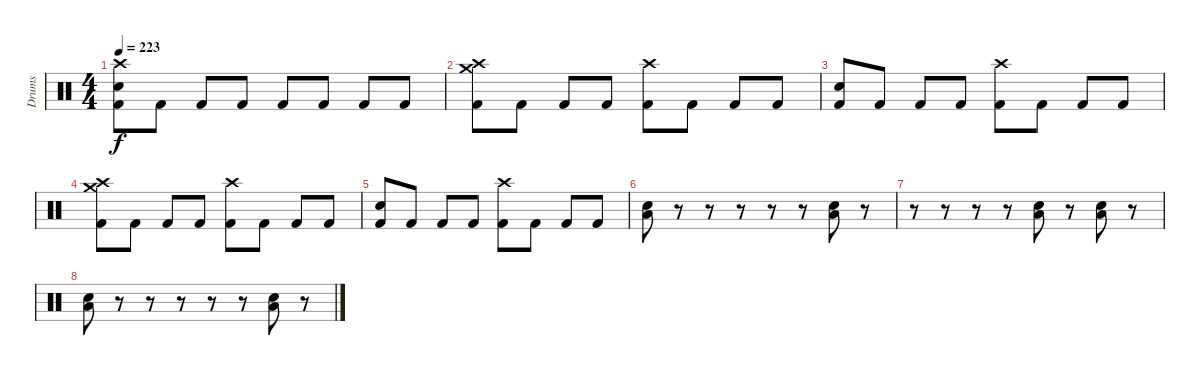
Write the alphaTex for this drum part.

\track ("Drums" "Drums") {instrument percussion bank 177}
\staff {score}
\articulation defaults
\ts (4 4)
\tempo 223
\clef neutral
\ks c
("Crash high (hit)" "Electric Snare (hit)" "Kick (hit) 2").8{dy f} "Kick (hit) 2".8 "Kick (hit) 2".8 "Kick (hit) 2".8 "Kick (hit) 2".8 "Kick (hit) 2".8 "Kick (hit) 2".8 "Kick (hit) 2".8 |
("Crash high (hit)" "Crash medium (hit)" "Kick (hit) 2").8 "Kick (hit) 2".8 "Kick (hit) 2".8 "Kick (hit) 2".8 ("Crash high (hit)" "Kick (hit) 2").8 "Kick (hit) 2".8 "Kick (hit) 2".8 "Kick (hit) 2".8 |
("Electric Snare (hit)" "Kick (hit) 2").8 "Kick (hit) 2".8 "Kick (hit) 2".8 "Kick (hit) 2".8 ("Crash high (hit)" "Kick (hit) 2").8 "Kick (hit) 2".8 "Kick (hit) 2".8 "Kick (hit) 2".8 |
("Crash high (hit)" "Crash medium (hit)" "Kick (hit) 2").8 "Kick (hit) 2".8 "Kick (hit) 2".8 "Kick (hit) 2".8 ("Crash high (hit)" "Kick (hit) 2").8 "Kick (hit) 2".8 "Kick (hit) 2".8 "Kick (hit) 2".8 |
("Electric Snare (hit)" "Kick (hit) 2").8 "Kick (hit) 2".8 "Kick (hit) 2".8 "Kick (hit) 2".8 ("Crash high (hit)" "Kick (hit) 2").8 "Kick (hit) 2".8 "Kick (hit) 2".8 "Kick (hit) 2".8 |
("Electric Snare (hit)" "Low Tom (hit)").8 r.8 r.8 r.8 r.8 r.8 ("Electric Snare (hit)" "Low Tom (hit)").8 r.8 |
r.8 r.8 r.8 r.8 ("Electric Snare (hit)" "Low Tom (hit)").8 r.8 ("Electric Snare (hit)" "Low Tom (hit)").8 r.8 |
("Electric Snare (hit)" "Low Tom (hit)").8 r.8 r.8 r.8 r.8 r.8 ("Electric Snare (hit)" "Low Tom (hit)").8 r.8
